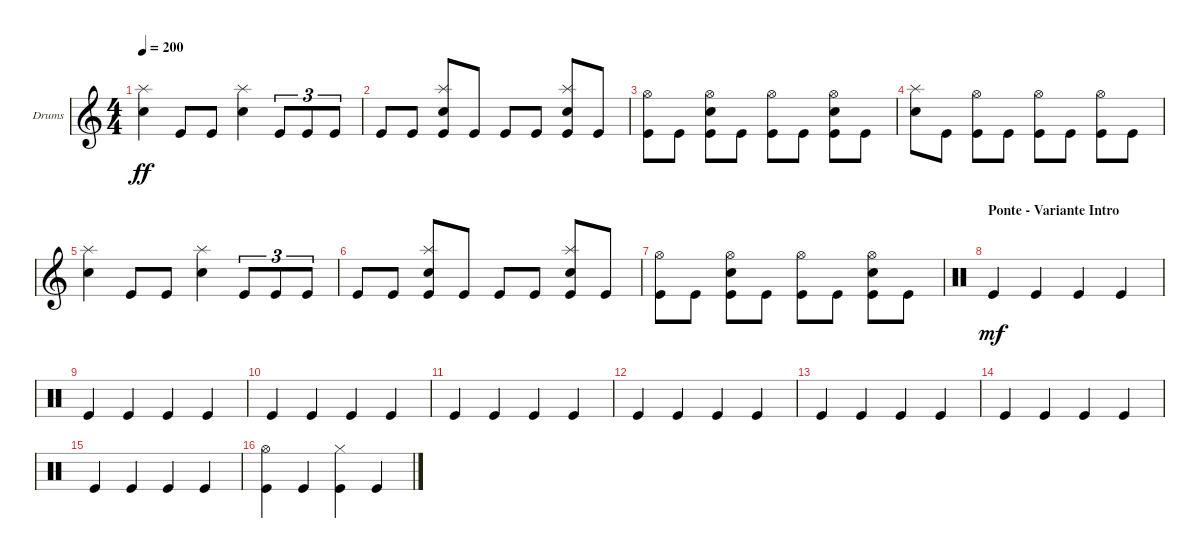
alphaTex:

\defaultSystemsLayout 4
\bracketExtendMode groupsimilarinstruments
\firstSystemTrackNameOrientation horizontal
\otherSystemsTrackNameOrientation horizontal
\track ("Drums" "Drums") {instrument percussion}
\staff {score}
\articulation defaults
\ts (4 4)
\tempo 200
\clef g2
\ks c
("Snare (hit) 2" "Splash (hit)").4{dy ff} "Kick (hit)".8 "Kick (hit)".8 ("Snare (hit) 2" "Splash (hit)").4 "Kick (hit)".8{tu (3 2)} "Kick (hit)".8{tu (3 2)} "Kick (hit)".8{tu (3 2)} |
"Kick (hit)".8 "Kick (hit)".8 ("Snare (hit) 2" "Splash (hit)" "Kick (hit)").8 "Kick (hit)".8 "Kick (hit)".8 "Kick (hit)".8 ("Kick (hit)" "Snare (hit) 2" "Splash (hit)").8 "Kick (hit)".8 |
("Kick (hit)" "Hi-Hat (open)").8 "Kick (hit)".8 ("Kick (hit)" "Hi-Hat (open)" "Snare (hit) 2").8 "Kick (hit)".8 ("Kick (hit)" "Hi-Hat (open)").8 "Kick (hit)".8 ("Kick (hit)" "Hi-Hat (open)" "Snare (hit) 2").8 "Kick (hit)".8 |
("Snare (hit) 2" "Splash (hit)").8 "Kick (hit)".8 ("Kick (hit)" "Hi-Hat (open)").8 "Kick (hit)".8 ("Kick (hit)" "Hi-Hat (open)").8 "Kick (hit)".8 ("Kick (hit)" "Hi-Hat (open)").8 "Kick (hit)".8 |
("Snare (hit) 2" "Splash (hit)").4 "Kick (hit)".8 "Kick (hit)".8 ("Snare (hit) 2" "Splash (hit)").4 "Kick (hit)".8{tu (3 2)} "Kick (hit)".8{tu (3 2)} "Kick (hit)".8{tu (3 2)} |
"Kick (hit)".8 "Kick (hit)".8 ("Snare (hit) 2" "Splash (hit)" "Kick (hit)").8 "Kick (hit)".8 "Kick (hit)".8 "Kick (hit)".8 ("Kick (hit)" "Snare (hit) 2" "Splash (hit)").8 "Kick (hit)".8 |
("Kick (hit)" "Hi-Hat (open)").8 "Kick (hit)".8 ("Kick (hit)" "Hi-Hat (open)" "Snare (hit) 2").8 "Kick (hit)".8 ("Kick (hit)" "Hi-Hat (open)").8 "Kick (hit)".8 ("Kick (hit)" "Hi-Hat (open)" "Snare (hit) 2").8 "Kick (hit)".8 |
\section ("" "Ponte - Variante Intro")
\clef neutral "Kick (hit)".4{dy mf} "Kick (hit)".4 "Kick (hit)".4 "Kick (hit)".4
|
"Kick (hit)".4 "Kick (hit)".4 "Kick (hit)".4 "Kick (hit)".4 |
"Kick (hit)".4 "Kick (hit)".4 "Kick (hit)".4 "Kick (hit)".4 |
"Kick (hit)".4 "Kick (hit)".4 "Kick (hit)".4 "Kick (hit)".4 |
"Kick (hit)".4 "Kick (hit)".4 "Kick (hit)".4 "Kick (hit)".4 |
"Kick (hit)".4 "Kick (hit)".4 "Kick (hit)".4 "Kick (hit)".4 |
"Kick (hit)".4 "Kick (hit)".4 "Kick (hit)".4 "Kick (hit)".4 |
"Kick (hit)".4 "Kick (hit)".4 "Kick (hit)".4 "Kick (hit)".4 |
("Kick (hit)" "Hi-Hat (open)").4 "Kick (hit)".4 ("Kick (hit)" "Hi-Hat (closed)").4 "Kick (hit)".4
